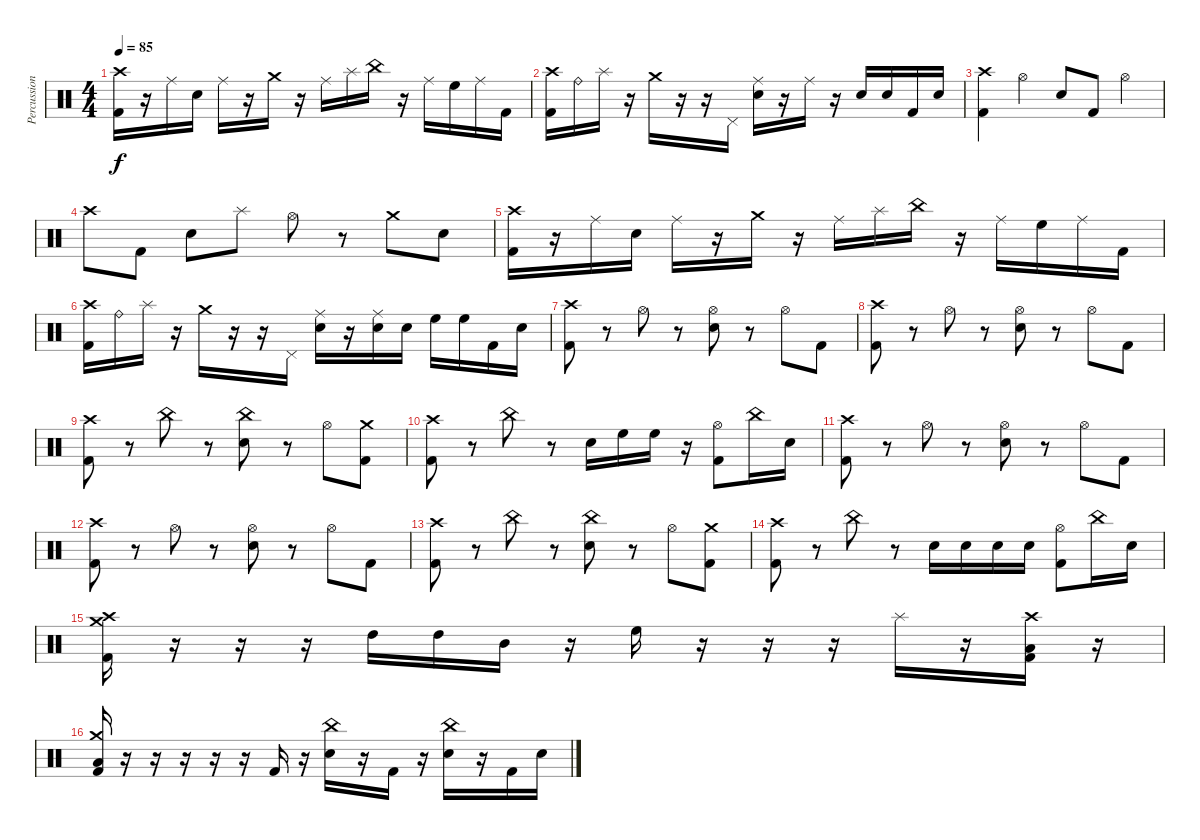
\track ("Percussion" "Percussion") {instrument percussion}
\staff {score}
\articulation defaults
\ts (4 4)
\tempo 85
\clef neutral
\ks c
("Crash high (hit)" "Kick (hit) 2").16{dy f} r.16 "Ride (middle)".16 "Electric Snare (hit)".16 "Ride (middle)".16 r.16 "Crash medium (hit)".16 r.16 "Ride (middle)".16 "Splash (hit)".16 "China (hit)".16 r.16 "Ride (middle)".16 "High Floor Tom (hit)".16 "Ride (middle)".16 "Kick (hit) 2".16 |
("Crash high (hit)" "Kick (hit) 2").16 "Ride (bell)".16 "Splash (hit)".16 r.16 "Crash medium (hit)".16 r.16 r.16 "Pedal Hi-Hat (hit)".16 ("Ride (middle)" "Electric Snare (hit)").16 r.16 "Ride (middle)".16 r.16 "Electric Snare (hit)".16 "Electric Snare (hit)".16 "Kick (hit) 2".16 "Electric Snare (hit)".16 |
("Crash high (hit)" "Kick (hit) 2").4 "Hi-Hat (open)".4 "Electric Snare (hit)".8 "Kick (hit) 2".8 "Hi-Hat (open)".4 |
"Crash high (hit)".8 "Kick (hit) 2".8 "Electric Snare (hit)".8 "Splash (hit)".8 "Hi-Hat (open)".8 r.8 "Crash medium (hit)".8 "Electric Snare (hit)".8 |
("Crash high (hit)" "Kick (hit) 2").16 r.16 "Ride (middle)".16 "Electric Snare (hit)".16 "Ride (middle)".16 r.16 "Crash medium (hit)".16 r.16 "Ride (middle)".16 "Splash (hit)".16 "China (hit)".16 r.16 "Ride (middle)".16 "High Floor Tom (hit)".16 "Ride (middle)".16 "Kick (hit) 2".16 |
("Crash high (hit)" "Kick (hit) 2").16 "Ride (bell)".16 "Splash (hit)".16 r.16 "Crash medium (hit)".16 r.16 r.16 "Pedal Hi-Hat (hit)".16 ("Ride (middle)" "Electric Snare (hit)").16 r.16 ("Ride (middle)" "Electric Snare (hit)").16 "Electric Snare (hit)".16 "High Floor Tom (hit)".16 "High Floor Tom (hit)".16 "Kick (hit) 2".16 "Electric Snare (hit)".16 |
("Crash high (hit)" "Kick (hit) 2").8 r.8 "Hi-Hat (open)".8 r.8 ("Hi-Hat (open)" "Electric Snare (hit)").8 r.8 "Hi-Hat (open)".8 "Kick (hit) 2".8 |
("Crash high (hit)" "Kick (hit) 2").8 r.8 "Hi-Hat (open)".8 r.8 ("Hi-Hat (open)" "Electric Snare (hit)").8 r.8 "Hi-Hat (open)".8 "Kick (hit) 2".8 |
("Crash high (hit)" "Kick (hit) 2").8 r.8 "China (hit)".8 r.8 ("China (hit)" "Electric Snare (hit)").8 r.8 "Hi-Hat (open)".8 ("Crash medium (hit)" "Kick (hit) 2").8 |
("Crash high (hit)" "Kick (hit) 2").8 r.8 "China (hit)".8 r.8 "Electric Snare (hit)".16 "High Floor Tom (hit)".16 "High Floor Tom (hit)".16 r.16 ("Hi-Hat (open)" "Kick (hit) 2").8 "China (hit)".16 "Electric Snare (hit)".16 |
("Crash high (hit)" "Kick (hit) 2").8 r.8 "Hi-Hat (open)".8 r.8 ("Hi-Hat (open)" "Electric Snare (hit)").8 r.8 "Hi-Hat (open)".8 "Kick (hit) 2".8 |
("Crash high (hit)" "Kick (hit) 2").8 r.8 "Hi-Hat (open)".8 r.8 ("Hi-Hat (open)" "Electric Snare (hit)").8 r.8 "Hi-Hat (open)".8 "Kick (hit) 2".8 |
("Crash high (hit)" "Kick (hit) 2").8 r.8 "China (hit)".8 r.8 ("China (hit)" "Electric Snare (hit)").8 r.8 "Hi-Hat (open)".8 ("Crash medium (hit)" "Kick (hit) 2").8 |
("Crash high (hit)" "Kick (hit) 2").8 r.8 "China (hit)".8 r.8 "Electric Snare (hit)".16 "Electric Snare (hit)".16 "Electric Snare (hit)".16 "Electric Snare (hit)".16 ("Hi-Hat (open)" "Kick (hit) 2").8 "China (hit)".16 "Electric Snare (hit)".16 |
("Crash medium (hit)" "Crash high (hit)" "Kick (hit) 2").16 r.16 r.16 r.16 "High Tom (hit)".16 "High Tom (hit)".16 "Mid Tom (hit)".16 r.16 "High Floor Tom (hit)".16 r.16 r.16 r.16 "Splash (hit)".16 r.16 ("Crash high (hit)" "Low Floor Tom (hit)" "Kick (hit) 2").16 r.16 |
("Crash medium (hit)" "Low Floor Tom (hit)" "Kick (hit) 2").16 r.16 r.16 r.16 r.16 r.16 "Kick (hit) 2".16 r.16 ("China (hit)" "Electric Snare (hit)").16 r.16 "Kick (hit) 2".16 r.16 ("China (hit)" "Electric Snare (hit)").16 r.16 "Kick (hit) 2".16 "Electric Snare (hit)".16
